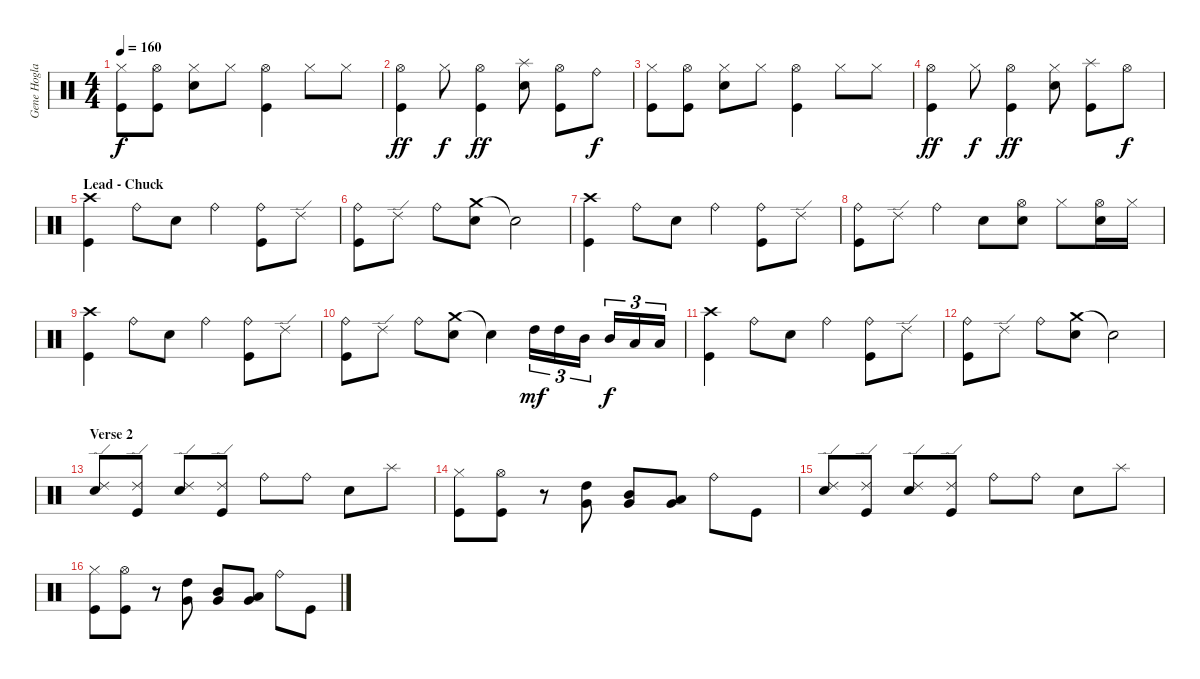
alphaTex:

\track ("Gene Hoglan" "Gene Hogla") {instrument percussion}
\staff {score}
\articulation defaults
\ts (4 4)
\tempo 160
\clef neutral
\ks c
("Hi-Hat (closed)" "Kick (hit)").8{dy f} ("Hi-Hat (open)" "Kick (hit)").8 ("Hi-Hat (closed)" "Electric Snare (hit)").8 "Hi-Hat (closed)".8 ("Hi-Hat (open)" "Kick (hit)").4 "Hi-Hat (closed)".8 "Hi-Hat (closed)".8 |
("Hi-Hat (open)" "Kick (hit)").4{dy ff} "Hi-Hat (closed)".8{dy f} ("Hi-Hat (open)" "Kick (hit)").4{dy ff} ("Splash (hit)" "Electric Snare (hit)").8 ("Hi-Hat (open)" "Kick (hit)").8 "Ride (bell)".8{dy f} |
("Hi-Hat (closed)" "Kick (hit)").8 ("Hi-Hat (open)" "Kick (hit)").8 ("Hi-Hat (closed)" "Electric Snare (hit)").8 "Hi-Hat (closed)".8 ("Hi-Hat (open)" "Kick (hit)").4 "Hi-Hat (closed)".8 "Hi-Hat (closed)".8 |
("Hi-Hat (open)" "Kick (hit)").4{dy ff} "Hi-Hat (closed)".8{dy f} ("Hi-Hat (open)" "Kick (hit)").4{dy ff} ("Hi-Hat (closed)" "Electric Snare (hit)").8 ("Splash (hit)" "Kick (hit)").8 "Hi-Hat (open)".8{dy f} |
\section ("" "Lead - Chuck")
("Crash high (hit)" "Kick (hit)").4 "Ride (bell)".8 "Electric Snare (hit)".8 "Ride (bell)".4 ("Ride (bell)" "Kick (hit)").8 "Ride (edge) 2".8 |
("Ride (bell)" "Kick (hit)").8 "Ride (edge) 2".8 "Ride (bell)".8 ("Crash medium (hit)" "Electric Snare (hit)").8 "Snare (hit)"{t}.2 |
("Crash high (hit)" "Kick (hit)").4 "Ride (bell)".8 "Electric Snare (hit)".8 "Ride (bell)".4 ("Ride (bell)" "Kick (hit)").8 "Ride (edge) 2".8 |
("Ride (bell)" "Kick (hit)").8 "Ride (edge) 2".8 "Ride (bell)".4 "Electric Snare (hit)".8 ("Hi-Hat (open)" "Electric Snare (hit)").8 "Hi-Hat (closed)".8 ("Hi-Hat (open)" "Electric Snare (hit)").16 "Hi-Hat (closed)".16 |
("Crash high (hit)" "Kick (hit)").4 "Ride (bell)".8 "Electric Snare (hit)".8 "Ride (bell)".4 ("Ride (bell)" "Kick (hit)").8 "Ride (edge) 2".8 |
("Ride (bell)" "Kick (hit)").8 "Ride (edge) 2".8 "Ride (bell)".8 ("Crash medium (hit)" "Electric Snare (hit)").8 "Snare (hit)"{t}.4 "High Tom (hit)".16{tu (3 2) dy mf} "High Tom (hit)".16{tu (3 2)} "Mid Tom (hit)".16{tu (3 2)} "Mid Tom (hit)".16{tu (3 2) dy f} "Low Tom (hit)".16{tu (3 2)} "Low Tom (hit)".16{tu (3 2)} |
("Crash high (hit)" "Kick (hit)").4 "Ride (bell)".8 "Electric Snare (hit)".8 "Ride (bell)".4 ("Ride (bell)" "Kick (hit)").8 "Ride (edge) 2".8 |
("Ride (bell)" "Kick (hit)").8 "Ride (edge) 2".8 "Ride (bell)".8 ("Crash medium (hit)" "Electric Snare (hit)").8 "Snare (hit)"{t}.2 |
\section ("" "Verse 2")
("Ride (edge) 2" "Electric Snare (hit)").8 ("Ride (edge) 2" "Kick (hit)").8 ("Ride (edge) 2" "Electric Snare (hit)").8 ("Ride (edge) 2" "Kick (hit)").8 "Ride (bell)".8 "Ride (bell)".8 "Electric Snare (hit)".8 "Splash (hit)".8 |
("Hi-Hat (closed)" "Kick (hit)").8 ("Hi-Hat (open)" "Kick (hit)").8 r.8 ("High Tom (hit)" "Very Low Tom (hit)").8 ("Mid Tom (hit)" "Very Low Tom (hit)").8 ("Low Tom (hit)" "Very Low Tom (hit)").8 "Ride (bell)".8 "Kick (hit)".8 |
("Ride (edge) 2" "Electric Snare (hit)").8 ("Ride (edge) 2" "Kick (hit)").8 ("Ride (edge) 2" "Electric Snare (hit)").8 ("Ride (edge) 2" "Kick (hit)").8 "Ride (bell)".8 "Ride (bell)".8 "Electric Snare (hit)".8 "Splash (hit)".8 |
("Hi-Hat (closed)" "Kick (hit)").8 ("Hi-Hat (open)" "Kick (hit)").8 r.8 ("High Tom (hit)" "Very Low Tom (hit)").8 ("Mid Tom (hit)" "Very Low Tom (hit)").8 ("Low Tom (hit)" "Very Low Tom (hit)").8 "Ride (bell)".8 "Kick (hit)".8
